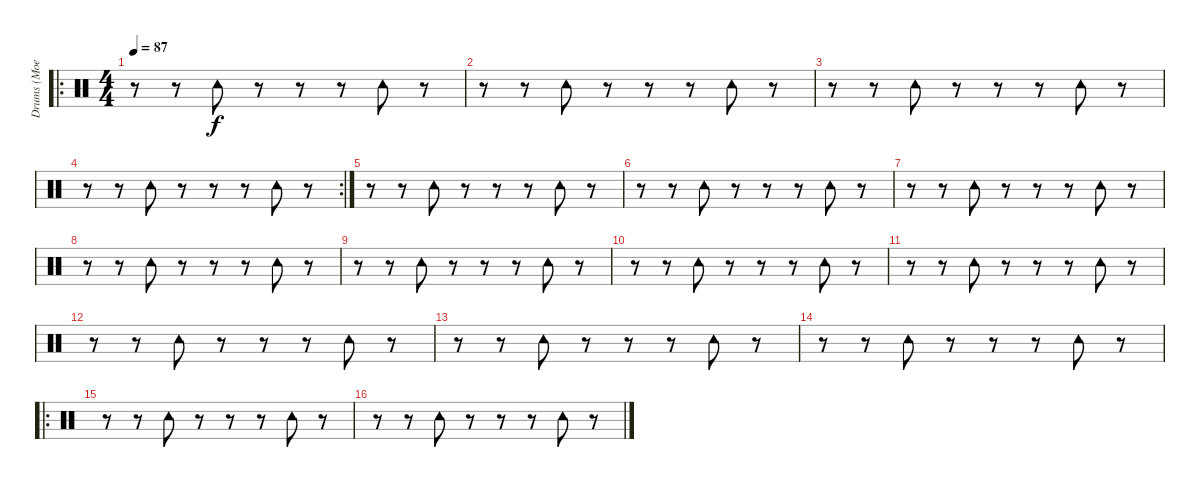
\track ("Drums (Moe Tucker)" "Drums (Moe") {instrument percussion}
\staff {score}
\articulation defaults
\ro
\ts (4 4)
\tempo 87
\clef neutral
\ks c
r.8{dy f} r.8 "Tambourine (hit)".8 r.8 r.8 r.8 "Tambourine (hit)".8 r.8 |
r.8 r.8 "Tambourine (hit)".8 r.8 r.8 r.8 "Tambourine (hit)".8 r.8 |
r.8 r.8 "Tambourine (hit)".8 r.8 r.8 r.8 "Tambourine (hit)".8 r.8 |
\rc 2
r.8 r.8 "Tambourine (hit)".8 r.8 r.8 r.8 "Tambourine (hit)".8 r.8 |
r.8 r.8 "Tambourine (hit)".8 r.8 r.8 r.8 "Tambourine (hit)".8 r.8 |
r.8 r.8 "Tambourine (hit)".8 r.8 r.8 r.8 "Tambourine (hit)".8 r.8 |
r.8 r.8 "Tambourine (hit)".8 r.8 r.8 r.8 "Tambourine (hit)".8 r.8 |
r.8 r.8 "Tambourine (hit)".8 r.8 r.8 r.8 "Tambourine (hit)".8 r.8 |
r.8 r.8 "Tambourine (hit)".8 r.8 r.8 r.8 "Tambourine (hit)".8 r.8 |
r.8 r.8 "Tambourine (hit)".8 r.8 r.8 r.8 "Tambourine (hit)".8 r.8 |
r.8 r.8 "Tambourine (hit)".8 r.8 r.8 r.8 "Tambourine (hit)".8 r.8 |
r.8 r.8 "Tambourine (hit)".8 r.8 r.8 r.8 "Tambourine (hit)".8 r.8 |
r.8 r.8 "Tambourine (hit)".8 r.8 r.8 r.8 "Tambourine (hit)".8 r.8 |
r.8 r.8 "Tambourine (hit)".8 r.8 r.8 r.8 "Tambourine (hit)".8 r.8 |
\ro
r.8 r.8 "Tambourine (hit)".8 r.8 r.8 r.8 "Tambourine (hit)".8 r.8 |
r.8 r.8 "Tambourine (hit)".8 r.8 r.8 r.8 "Tambourine (hit)".8 r.8
